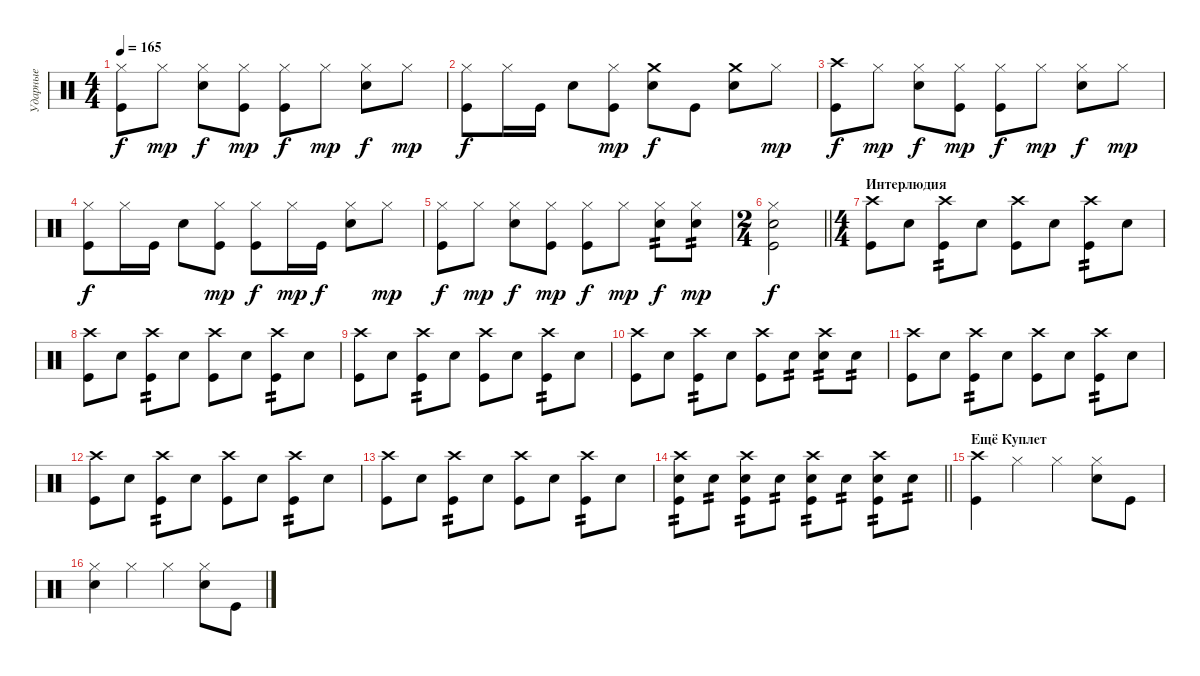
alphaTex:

\track ("Ударные" "Ударные") {instrument percussion}
\staff {score}
\articulation defaults
\ts (4 4)
\tempo 165
\clef neutral
\ks c
("Hi-Hat (closed)" "Kick (hit)").8{dy f} "Hi-Hat (closed)".8{dy mp} ("Hi-Hat (closed)" "Snare (hit) 2").8{dy f} ("Hi-Hat (closed)" "Kick (hit)").8{dy mp} ("Hi-Hat (closed)" "Kick (hit)").8{dy f} "Hi-Hat (closed)".8{dy mp} ("Hi-Hat (closed)" "Snare (hit) 2").8{dy f} "Hi-Hat (closed)".8{dy mp} |
("Hi-Hat (closed)" "Kick (hit)").8{dy f} "Hi-Hat (closed)".16 "Kick (hit)".16 "Snare (hit) 2".8 ("Hi-Hat (closed)" "Kick (hit)").8{dy mp} ("Crash medium (hit)" "Snare (hit) 2").8{dy f} "Kick (hit)".8 ("Crash medium (hit)" "Snare (hit) 2").8 "Hi-Hat (closed)".8{dy mp} |
("Crash high (hit)" "Kick (hit)").8{dy f} "Hi-Hat (closed)".8{dy mp} ("Hi-Hat (closed)" "Snare (hit) 2").8{dy f} ("Hi-Hat (closed)" "Kick (hit)").8{dy mp} ("Hi-Hat (closed)" "Kick (hit)").8{dy f} "Hi-Hat (closed)".8{dy mp} ("Hi-Hat (closed)" "Snare (hit) 2").8{dy f} "Hi-Hat (closed)".8{dy mp} |
("Hi-Hat (closed)" "Kick (hit)").8{dy f} "Hi-Hat (closed)".16 "Kick (hit)".16 "Snare (hit) 2".8 ("Hi-Hat (closed)" "Kick (hit)").8{dy mp} ("Hi-Hat (closed)" "Kick (hit)").8{dy f} "Hi-Hat (closed)".16{dy mp} "Kick (hit)".16{dy f} ("Hi-Hat (closed)" "Snare (hit) 2").8 "Hi-Hat (closed)".8{dy mp} |
("Hi-Hat (closed)" "Kick (hit)").8{dy f} "Hi-Hat (closed)".8{dy mp} ("Hi-Hat (closed)" "Snare (hit) 2").8{dy f} ("Hi-Hat (closed)" "Kick (hit)").8{dy mp} ("Hi-Hat (closed)" "Kick (hit)").8{dy f} "Hi-Hat (closed)".8{dy mp} ("Hi-Hat (closed)" "Snare (hit) 2").8{tp 2 dy f} ("Hi-Hat (closed)" "Snare (hit) 2").8{tp 2 dy mp} |
\ts (2 4)
\barLineRight lightlight
("Hi-Hat (closed)" "Snare (hit) 2" "Kick (hit)").2{dy f} |
\ts (4 4)
\section ("" "Интерлюдия")
("Crash high (hit)" "Kick (hit)").8 "Snare (hit) 2".8 ("Crash high (hit)" "Kick (hit)").8{tp 2} "Snare (hit) 2".8 ("Crash high (hit)" "Kick (hit)").8 "Snare (hit) 2".8 ("Crash high (hit)" "Kick (hit)").8{tp 2} "Snare (hit) 2".8 |
("Crash high (hit)" "Kick (hit)").8 "Snare (hit) 2".8 ("Crash high (hit)" "Kick (hit)").8{tp 2} "Snare (hit) 2".8 ("Crash high (hit)" "Kick (hit)").8 "Snare (hit) 2".8 ("Crash high (hit)" "Kick (hit)").8{tp 2} "Snare (hit) 2".8 |
("Crash high (hit)" "Kick (hit)").8 "Snare (hit) 2".8 ("Crash high (hit)" "Kick (hit)").8{tp 2} "Snare (hit) 2".8 ("Crash high (hit)" "Kick (hit)").8 "Snare (hit) 2".8 ("Crash high (hit)" "Kick (hit)").8{tp 2} "Snare (hit) 2".8 |
("Crash high (hit)" "Kick (hit)").8 "Snare (hit) 2".8 ("Crash high (hit)" "Kick (hit)").8{tp 2} "Snare (hit) 2".8 ("Crash high (hit)" "Kick (hit)").8 "Snare (hit) 2".8{tp 2} ("Crash high (hit)" "Snare (hit) 2").8{tp 2} "Snare (hit) 2".8{tp 2} |
("Crash high (hit)" "Kick (hit)").8 "Snare (hit) 2".8 ("Crash high (hit)" "Kick (hit)").8{tp 2} "Snare (hit) 2".8 ("Crash high (hit)" "Kick (hit)").8 "Snare (hit) 2".8 ("Crash high (hit)" "Kick (hit)").8{tp 2} "Snare (hit) 2".8 |
("Crash high (hit)" "Kick (hit)").8 "Snare (hit) 2".8 ("Crash high (hit)" "Kick (hit)").8{tp 2} "Snare (hit) 2".8 ("Crash high (hit)" "Kick (hit)").8 "Snare (hit) 2".8 ("Crash high (hit)" "Kick (hit)").8{tp 2} "Snare (hit) 2".8 |
("Crash high (hit)" "Kick (hit)").8 "Snare (hit) 2".8 ("Crash high (hit)" "Kick (hit)").8{tp 2} "Snare (hit) 2".8 ("Crash high (hit)" "Kick (hit)").8 "Snare (hit) 2".8 ("Crash high (hit)" "Kick (hit)").8{tp 2} "Snare (hit) 2".8 |
\barLineRight lightlight
("Crash high (hit)" "Snare (hit) 2" "Kick (hit)").8{tp 2} "Snare (hit) 2".8{tp 2} ("Crash high (hit)" "Snare (hit) 2" "Kick (hit)").8{tp 2} "Snare (hit) 2".8{tp 2} ("Crash high (hit)" "Snare (hit) 2" "Kick (hit)").8{tp 2} "Snare (hit) 2".8{tp 2} ("Crash high (hit)" "Snare (hit) 2" "Kick (hit)").8{tp 2} "Snare (hit) 2".8{tp 2} |
\section ("" "Ещё Куплет")
("Crash high (hit)" "Kick (hit)").4 "Hi-Hat (closed)".4 "Hi-Hat (closed)".4 ("Hi-Hat (closed)" "Snare (hit) 2").8 "Kick (hit)".8 |
("Hi-Hat (closed)" "Snare (hit) 2").4 "Hi-Hat (closed)".4 "Hi-Hat (closed)".4 ("Hi-Hat (closed)" "Snare (hit) 2").8 "Kick (hit)".8
